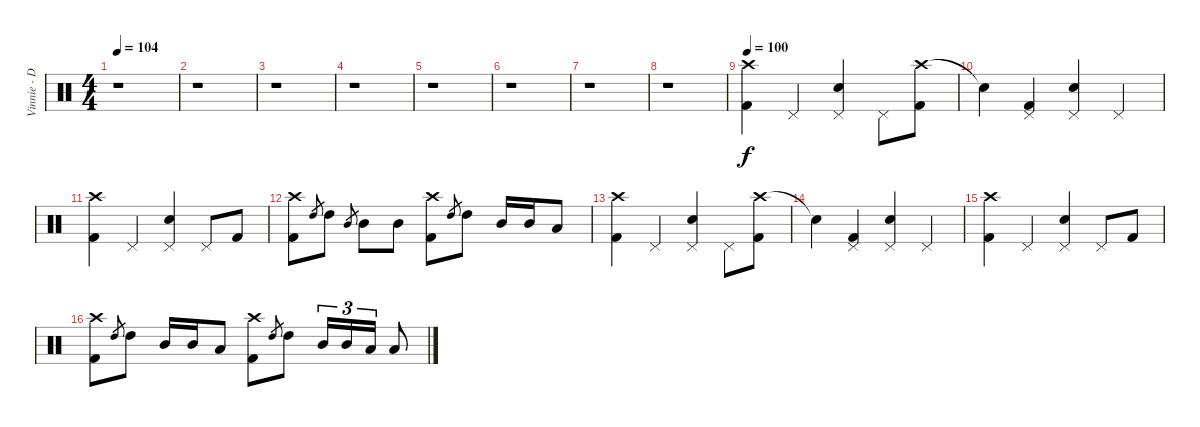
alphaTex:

\track ("Vinnie - Drums" "Vinnie - D") {instrument percussion}
\staff {score}
\articulation defaults
\ts (4 4)
\tempo 104
\tempo 90
\tempo 104
\clef neutral
\ks c
r.1{dy f} |
r.1 |
r.1 |
r.1 |
r.1 |
r.1 |
r.1 |
r.1 |
\tempo 100
("Crash high (hit)" "Kick (hit) 2").4 "Pedal Hi-Hat (hit)".4 ("Pedal Hi-Hat (hit)" "Electric Snare (hit)").4 "Pedal Hi-Hat (hit)".8 ("Crash high (hit)" "Kick (hit) 2").8 |
"Snare (hit)"{t}.4 ("Pedal Hi-Hat (hit)" "Kick (hit) 2").4 ("Pedal Hi-Hat (hit)" "Electric Snare (hit)").4 "Pedal Hi-Hat (hit)".4 |
("Crash high (hit)" "Kick (hit) 2").4 "Pedal Hi-Hat (hit)".4 ("Pedal Hi-Hat (hit)" "Electric Snare (hit)").4 "Pedal Hi-Hat (hit)".8 "Kick (hit) 2".8 |
("Crash high (hit)" "Kick (hit) 2").8 "High Tom (hit)".8{gr} "High Tom (hit)".8 "Mid Tom (hit)".8{gr} "Mid Tom (hit)".8 "Mid Tom (hit)".8 ("Crash high (hit)" "Kick (hit) 2").8 "High Tom (hit)".8{gr} "High Tom (hit)".8 "Mid Tom (hit)".16 "Mid Tom (hit)".16 "Low Tom (hit)".8 |
("Crash high (hit)" "Kick (hit) 2").4 "Pedal Hi-Hat (hit)".4 ("Pedal Hi-Hat (hit)" "Electric Snare (hit)").4 "Pedal Hi-Hat (hit)".8 ("Crash high (hit)" "Kick (hit) 2").8 |
"Snare (hit)"{t}.4 ("Pedal Hi-Hat (hit)" "Kick (hit) 2").4 ("Pedal Hi-Hat (hit)" "Electric Snare (hit)").4 "Pedal Hi-Hat (hit)".4 |
("Crash high (hit)" "Kick (hit) 2").4 "Pedal Hi-Hat (hit)".4 ("Pedal Hi-Hat (hit)" "Electric Snare (hit)").4 "Pedal Hi-Hat (hit)".8 "Kick (hit) 2".8 |
("Crash high (hit)" "Kick (hit) 2").8 "High Tom (hit)".8{gr} "High Tom (hit)".8 "Mid Tom (hit)".16 "Mid Tom (hit)".16 "Low Tom (hit)".8 ("Crash high (hit)" "Kick (hit) 2").8 "High Tom (hit)".8{gr} "High Tom (hit)".8 "Mid Tom (hit)".16{tu (3 2)} "Mid Tom (hit)".16{tu (3 2)} "Low Tom (hit)".16{tu (3 2)} "Low Tom (hit)".8
